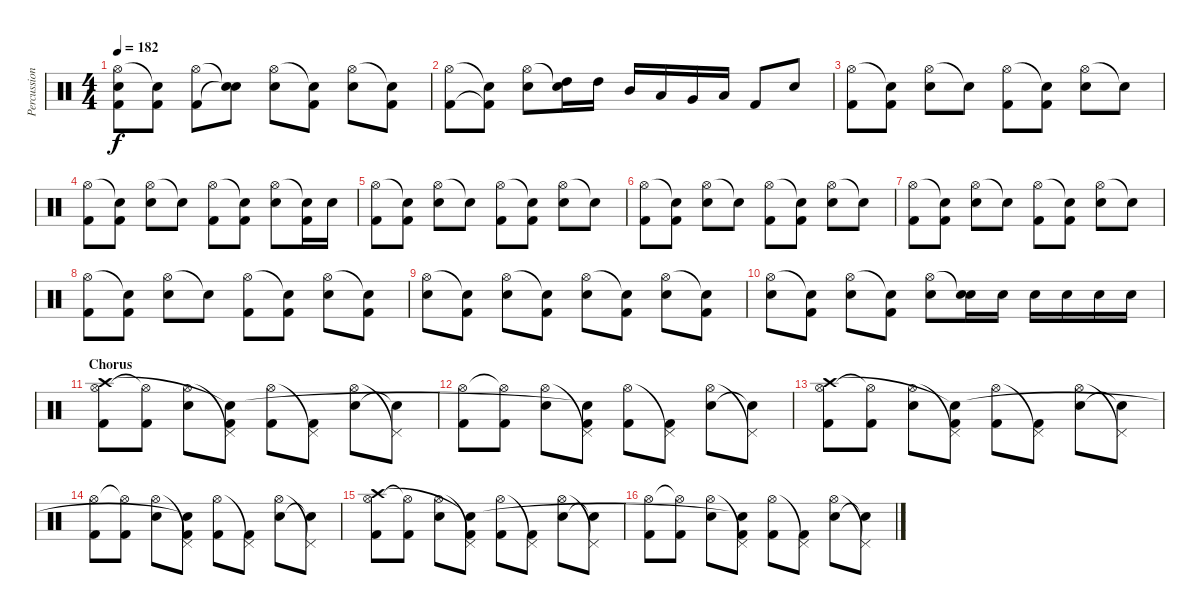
\track ("Percussion" "Percussion") {instrument percussion}
\staff {score}
\articulation defaults
\ts (4 4)
\tempo 182
\clef neutral
\ks c
("Hi-Hat (open)" "Kick (hit) 2"{t} "Snare (hit)").8{dy f} ("Snare (hit)"{t} "Kick (hit) 2").8 ("Hi-Hat (open)" "Kick (hit) 2").8 ("Snare (hit)"{t} "Snare (hit)"{t}).8 ("Hi-Hat (open)" "Electric Snare (hit)").8 ("Snare (hit)"{t} "Kick (hit) 2").8 ("Hi-Hat (open)" "Electric Snare (hit)").8 ("Snare (hit)"{t} "Kick (hit) 2").8 |
("Hi-Hat (open)" "Kick (hit) 2").8 ("Snare (hit)"{t} "Kick (hit) 2"{t}).8 ("Hi-Hat (open)" "Electric Snare (hit)").8 ("Snare (hit)"{t} "High Tom (hit)").16 "High Tom (hit)".16 "Mid Tom (hit)".16 "Low Tom (hit)".16 "Very Low Tom (hit)".16 "Low Floor Tom (hit)".16 "Kick (hit) 2".8 "Electric Snare (hit)".8 |
("Hi-Hat (open)" "Kick (hit) 2").8 ("Snare (hit)"{t} "Kick (hit) 2").8 ("Hi-Hat (open)" "Electric Snare (hit)").8 "Snare (hit)"{t}.8 ("Hi-Hat (open)" "Kick (hit) 2").8 ("Snare (hit)"{t} "Kick (hit) 2").8 ("Hi-Hat (open)" "Electric Snare (hit)").8 "Snare (hit)"{t}.8 |
("Hi-Hat (open)" "Kick (hit) 2").8 ("Snare (hit)"{t} "Kick (hit) 2").8 ("Hi-Hat (open)" "Electric Snare (hit)").8 "Snare (hit)"{t}.8 ("Hi-Hat (open)" "Kick (hit) 2").8 ("Snare (hit)"{t} "Kick (hit) 2").8 ("Hi-Hat (open)" "Electric Snare (hit)").8 ("Snare (hit)"{t} "Kick (hit) 2").16 "Electric Snare (hit)".16 |
("Hi-Hat (open)" "Kick (hit) 2").8 ("Snare (hit)"{t} "Kick (hit) 2").8 ("Hi-Hat (open)" "Electric Snare (hit)").8 "Snare (hit)"{t}.8 ("Hi-Hat (open)" "Kick (hit) 2").8 ("Snare (hit)"{t} "Kick (hit) 2").8 ("Hi-Hat (open)" "Electric Snare (hit)").8 "Snare (hit)"{t}.8 |
("Hi-Hat (open)" "Kick (hit) 2").8 ("Snare (hit)"{t} "Kick (hit) 2").8 ("Hi-Hat (open)" "Electric Snare (hit)").8 "Snare (hit)"{t}.8 ("Hi-Hat (open)" "Kick (hit) 2").8 ("Snare (hit)"{t} "Kick (hit) 2").8 ("Hi-Hat (open)" "Electric Snare (hit)").8 "Snare (hit)"{t}.8 |
("Hi-Hat (open)" "Kick (hit) 2").8 ("Snare (hit)"{t} "Kick (hit) 2").8 ("Hi-Hat (open)" "Electric Snare (hit)").8 "Snare (hit)"{t}.8 ("Hi-Hat (open)" "Kick (hit) 2").8 ("Snare (hit)"{t} "Kick (hit) 2").8 ("Hi-Hat (open)" "Electric Snare (hit)").8 "Snare (hit)"{t}.8 |
("Hi-Hat (open)" "Kick (hit) 2").8 ("Snare (hit)"{t} "Kick (hit) 2").8 ("Hi-Hat (open)" "Electric Snare (hit)").8 "Snare (hit)"{t}.8 ("Hi-Hat (open)" "Kick (hit) 2").8 ("Snare (hit)"{t} "Kick (hit) 2").8 ("Hi-Hat (open)" "Electric Snare (hit)").8 ("Snare (hit)"{t} "Kick (hit) 2").8 |
("Hi-Hat (open)" "Electric Snare (hit)").8 ("Snare (hit)"{t} "Kick (hit) 2").8 ("Hi-Hat (open)" "Electric Snare (hit)").8 ("Snare (hit)"{t} "Kick (hit) 2").8 ("Hi-Hat (open)" "Electric Snare (hit)").8 ("Snare (hit)"{t} "Kick (hit) 2").8 ("Hi-Hat (open)" "Electric Snare (hit)").8 ("Snare (hit)"{t} "Kick (hit) 2").8 |
("Hi-Hat (open)" "Electric Snare (hit)").8 ("Snare (hit)"{t} "Kick (hit) 2").8 ("Hi-Hat (open)" "Electric Snare (hit)").8 ("Snare (hit)"{t} "Kick (hit) 2").8 ("Hi-Hat (open)" "Electric Snare (hit)").8 ("Snare (hit)"{t} "Electric Snare (hit)").16 "Electric Snare (hit)".16 "Electric Snare (hit)".16 "Electric Snare (hit)".16 "Electric Snare (hit)".16 "Electric Snare (hit)".16 |
\section ("" "Chorus")
("Hi-Hat (open)" "Kick (hit) 2" "Crash high (hit)").8 ("Hi-Hat (open)"{t} "Kick (hit) 2").8 ("Hi-Hat (open)" "Electric Snare (hit)").8 ("Pedal Hi-Hat (hit)"{t} "Kick (hit) 2" "Snare (hit)"{t}).8 ("Hi-Hat (open)" "Kick (hit) 2").8 ("Pedal Hi-Hat (hit)"{t} "Kick (hit) 2").8 ("Hi-Hat (open)" "Electric Snare (hit)").8 ("Pedal Hi-Hat (hit)"{t} "Snare (hit)"{t}).8 |
("Hi-Hat (open)" "Kick (hit) 2").8 ("Hi-Hat (open)"{t} "Kick (hit) 2").8 ("Hi-Hat (open)" "Electric Snare (hit)").8 ("Pedal Hi-Hat (hit)"{t} "Kick (hit) 2" "Snare (hit)"{t}).8 ("Hi-Hat (open)" "Kick (hit) 2").8 ("Pedal Hi-Hat (hit)"{t} "Kick (hit) 2").8 ("Hi-Hat (open)" "Electric Snare (hit)").8 ("Pedal Hi-Hat (hit)"{t} "Snare (hit)"{t}).8 |
("Hi-Hat (open)" "Kick (hit) 2" "Crash high (hit)").8 ("Hi-Hat (open)"{t} "Kick (hit) 2").8 ("Hi-Hat (open)" "Electric Snare (hit)").8 ("Pedal Hi-Hat (hit)"{t} "Kick (hit) 2" "Snare (hit)"{t}).8 ("Hi-Hat (open)" "Kick (hit) 2").8 ("Pedal Hi-Hat (hit)"{t} "Kick (hit) 2").8 ("Hi-Hat (open)" "Electric Snare (hit)").8 ("Pedal Hi-Hat (hit)"{t} "Snare (hit)"{t}).8 |
("Hi-Hat (open)" "Kick (hit) 2").8 ("Hi-Hat (open)"{t} "Kick (hit) 2").8 ("Hi-Hat (open)" "Electric Snare (hit)").8 ("Pedal Hi-Hat (hit)"{t} "Kick (hit) 2" "Snare (hit)"{t}).8 ("Hi-Hat (open)" "Kick (hit) 2").8 ("Pedal Hi-Hat (hit)"{t} "Kick (hit) 2").8 ("Hi-Hat (open)" "Electric Snare (hit)").8 ("Pedal Hi-Hat (hit)"{t} "Snare (hit)"{t}).8 |
("Hi-Hat (open)" "Kick (hit) 2" "Crash high (hit)").8 ("Hi-Hat (open)"{t} "Kick (hit) 2").8 ("Hi-Hat (open)" "Electric Snare (hit)").8 ("Pedal Hi-Hat (hit)"{t} "Kick (hit) 2" "Snare (hit)"{t}).8 ("Hi-Hat (open)" "Kick (hit) 2").8 ("Pedal Hi-Hat (hit)"{t} "Kick (hit) 2").8 ("Hi-Hat (open)" "Electric Snare (hit)").8 ("Pedal Hi-Hat (hit)"{t} "Snare (hit)"{t}).8 |
("Hi-Hat (open)" "Kick (hit) 2").8 ("Hi-Hat (open)"{t} "Kick (hit) 2").8 ("Hi-Hat (open)" "Electric Snare (hit)").8 ("Pedal Hi-Hat (hit)"{t} "Kick (hit) 2" "Snare (hit)"{t}).8 ("Hi-Hat (open)" "Kick (hit) 2").8 ("Pedal Hi-Hat (hit)"{t} "Kick (hit) 2").8 ("Hi-Hat (open)" "Electric Snare (hit)").8 ("Pedal Hi-Hat (hit)"{t} "Snare (hit)"{t}).8
